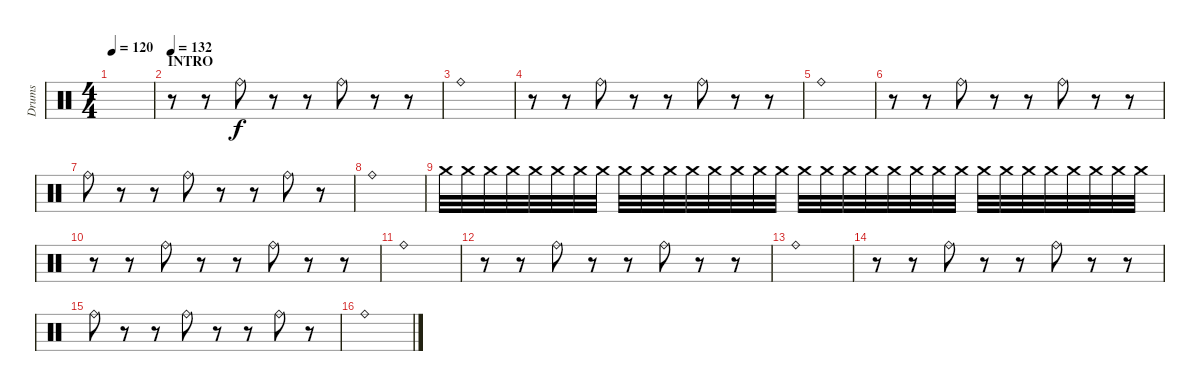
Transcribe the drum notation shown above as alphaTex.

\track ("Drums" "Drums") {instrument percussion}
\staff {score}
\articulation defaults
\ts (4 4)
\tempo 120
\clef neutral
\ks c
|
\section ("" "INTRO")
\tempo 132
r.8 r.8 "Ride (bell)".8{balance 16} r.8 r.8 "Ride (bell)".8{balance 8} r.8 r.8 |
"Ride (bell)".1{balance 0} |
r.8 r.8 "Ride (bell)".8{balance 16} r.8 r.8 "Ride (bell)".8{balance 8} r.8 r.8 |
"Ride (bell)".1{balance 0} |
r.8 r.8 "Ride (bell)".8{balance 12} r.8 r.8 "Ride (bell)".8{balance 16} r.8 r.8 |
"Ride (bell)".8{balance 12} r.8 r.8 "Ride (bell)".8{balance 8} r.8 r.8 "Ride (bell)".8{balance 4} r.8 |
"Ride (bell)".1{volume 0 balance 0} |
"Crash medium (hit)".32{volume 4 balance 8} "Crash medium (hit)".32 "Crash medium (hit)".32 "Crash medium (hit)".32 "Crash medium (hit)".32 "Crash medium (hit)".32 "Crash medium (hit)".32 "Crash medium (hit)".32 "Crash medium (hit)".32 "Crash medium (hit)".32 "Crash medium (hit)".32 "Crash medium (hit)".32 "Crash medium (hit)".32 "Crash medium (hit)".32 "Crash medium (hit)".32 "Crash medium (hit)".32 "Crash medium (hit)".32 "Crash medium (hit)".32 "Crash medium (hit)".32 "Crash medium (hit)".32 "Crash medium (hit)".32 "Crash medium (hit)".32 "Crash medium (hit)".32 "Crash medium (hit)".32 "Crash medium (hit)".32 "Crash medium (hit)".32 "Crash medium (hit)".32 "Crash medium (hit)".32 "Crash medium (hit)".32 "Crash medium (hit)".32 "Crash medium (hit)".32 "Crash medium (hit)".32 |
r.8 r.8 "Ride (bell)".8{volume 10 balance 16} r.8 r.8 "Ride (bell)".8{balance 8} r.8 r.8 |
"Ride (bell)".1{balance 0} |
r.8 r.8 "Ride (bell)".8{balance 16} r.8 r.8 "Ride (bell)".8{balance 8} r.8 r.8 |
"Ride (bell)".1{balance 0} |
r.8 r.8 "Ride (bell)".8{balance 12} r.8 r.8 "Ride (bell)".8{balance 16} r.8 r.8 |
"Ride (bell)".8{balance 12} r.8 r.8 "Ride (bell)".8{balance 8} r.8 r.8 "Ride (bell)".8{balance 4} r.8 |
"Ride (bell)".1{volume 0 balance 0}
